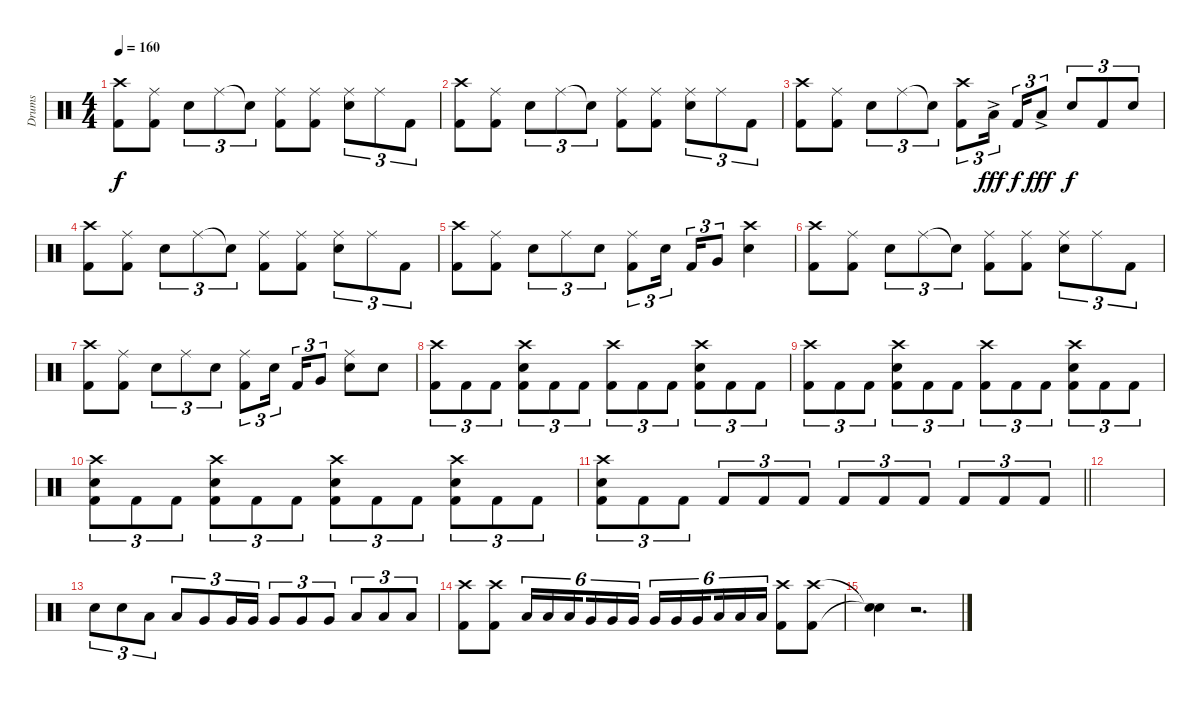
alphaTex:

\track ("Drums" "Drums") {instrument percussion}
\staff {score}
\articulation defaults
\ts (4 4)
\tempo 160
\clef neutral
\ks c
("Crash high (hit)" "Kick (hit) 2").8{dy f} ("Ride (middle)" "Kick (hit) 2").8 "Snare (hit) 2".8{tu (3 2)} "Ride (middle)".8{tu (3 2)} "Snare (hit)"{t}.8{tu (3 2)} ("Ride (middle)" "Kick (hit) 2").8 ("Ride (middle)" "Kick (hit) 2").8 ("Ride (middle)" "Snare (hit) 2").8{tu (3 2)} "Ride (middle)".8{tu (3 2)} "Kick (hit) 2".8{tu (3 2)} |
("Crash high (hit)" "Kick (hit) 2").8 ("Ride (middle)" "Kick (hit) 2").8 "Snare (hit) 2".8{tu (3 2)} "Ride (middle)".8{tu (3 2)} "Snare (hit)"{t}.8{tu (3 2)} ("Ride (middle)" "Kick (hit) 2").8 ("Ride (middle)" "Kick (hit) 2").8 ("Ride (middle)" "Snare (hit) 2").8{tu (3 2)} "Ride (middle)".8{tu (3 2)} "Kick (hit) 2".8{tu (3 2)} |
("Crash high (hit)" "Kick (hit) 2").8 ("Ride (middle)" "Kick (hit) 2").8 "Snare (hit) 2".8{tu (3 2)} "Ride (middle)".8{tu (3 2)} "Snare (hit)"{t}.8{tu (3 2)} ("Crash high (hit)" "Kick (hit) 2").8{tu (3 2)} "Low Tom (hit)"{ac}.16{tu (3 2) dy fff beam splitsecondary} "Kick (hit) 2".16{tu (3 2) dy f} "Low Tom (hit)"{ac}.8{tu (3 2) dy fff} "Snare (hit) 2".8{tu (3 2) dy f} "Kick (hit) 2".8{tu (3 2)} "Snare (hit) 2".8{tu (3 2)} |
("Crash high (hit)" "Kick (hit) 2").8 ("Ride (middle)" "Kick (hit) 2").8 "Snare (hit) 2".8{tu (3 2)} "Ride (middle)".8{tu (3 2)} "Snare (hit)"{t}.8{tu (3 2)} ("Ride (middle)" "Kick (hit) 2").8 ("Ride (middle)" "Kick (hit) 2").8 ("Ride (middle)" "Snare (hit) 2").8{tu (3 2)} "Ride (middle)".8{tu (3 2)} "Kick (hit) 2".8{tu (3 2)} |
("Crash high (hit)" "Kick (hit) 2").8 ("Ride (middle)" "Kick (hit) 2").8 "Snare (hit) 2".8{tu (3 2)} "Ride (middle)".8{tu (3 2)} "Snare (hit) 2".8{tu (3 2)} ("Ride (middle)" "Kick (hit) 2").8{tu (3 2)} "Snare (hit) 2".16{tu (3 2) beam splitsecondary} "Kick (hit) 2".16{tu (3 2)} "Very Low Tom (hit)".8{tu (3 2)} ("Crash high (hit)" "Snare (hit) 2").4 |
("Crash high (hit)" "Kick (hit) 2").8 ("Ride (middle)" "Kick (hit) 2").8 "Snare (hit) 2".8{tu (3 2)} "Ride (middle)".8{tu (3 2)} "Snare (hit)"{t}.8{tu (3 2)} ("Ride (middle)" "Kick (hit) 2").8 ("Ride (middle)" "Kick (hit) 2").8 ("Ride (middle)" "Snare (hit) 2").8{tu (3 2)} "Ride (middle)".8{tu (3 2)} "Kick (hit) 2".8{tu (3 2)} |
("Crash high (hit)" "Kick (hit) 2").8 ("Ride (middle)" "Kick (hit) 2").8 "Snare (hit) 2".8{tu (3 2)} "Ride (middle)".8{tu (3 2)} "Snare (hit) 2".8{tu (3 2)} ("Ride (middle)" "Kick (hit) 2").8{tu (3 2)} "Snare (hit) 2".16{tu (3 2) beam splitsecondary} "Kick (hit) 2".16{tu (3 2)} "Very Low Tom (hit)".8{tu (3 2)} ("Ride (middle)" "Snare (hit) 2").8 "Snare (hit) 2".8 |
("Crash high (hit)" "Kick (hit) 2").8{tu (3 2)} "Kick (hit) 2".8{tu (3 2)} "Kick (hit) 2".8{tu (3 2)} ("Crash high (hit)" "Snare (hit) 2" "Kick (hit) 2").8{tu (3 2)} "Kick (hit) 2".8{tu (3 2)} "Kick (hit) 2".8{tu (3 2)} ("Crash high (hit)" "Kick (hit) 2").8{tu (3 2)} "Kick (hit) 2".8{tu (3 2)} "Kick (hit) 2".8{tu (3 2)} ("Crash high (hit)" "Snare (hit) 2" "Kick (hit) 2").8{tu (3 2)} "Kick (hit) 2".8{tu (3 2)} "Kick (hit) 2".8{tu (3 2)} |
("Crash high (hit)" "Kick (hit) 2").8{tu (3 2)} "Kick (hit) 2".8{tu (3 2)} "Kick (hit) 2".8{tu (3 2)} ("Crash high (hit)" "Snare (hit) 2" "Kick (hit) 2").8{tu (3 2)} "Kick (hit) 2".8{tu (3 2)} "Kick (hit) 2".8{tu (3 2)} ("Crash high (hit)" "Kick (hit) 2").8{tu (3 2)} "Kick (hit) 2".8{tu (3 2)} "Kick (hit) 2".8{tu (3 2)} ("Crash high (hit)" "Snare (hit) 2" "Kick (hit) 2").8{tu (3 2)} "Kick (hit) 2".8{tu (3 2)} "Kick (hit) 2".8{tu (3 2)} |
("Crash high (hit)" "Snare (hit) 2" "Kick (hit) 2").8{tu (3 2)} "Kick (hit) 2".8{tu (3 2)} "Kick (hit) 2".8{tu (3 2)} ("Crash high (hit)" "Snare (hit) 2" "Kick (hit) 2").8{tu (3 2)} "Kick (hit) 2".8{tu (3 2)} "Kick (hit) 2".8{tu (3 2)} ("Crash high (hit)" "Snare (hit) 2" "Kick (hit) 2").8{tu (3 2)} "Kick (hit) 2".8{tu (3 2)} "Kick (hit) 2".8{tu (3 2)} ("Crash high (hit)" "Snare (hit) 2" "Kick (hit) 2").8{tu (3 2)} "Kick (hit) 2".8{tu (3 2)} "Kick (hit) 2".8{tu (3 2)} |
\barLineRight lightlight
("Crash high (hit)" "Snare (hit) 2" "Kick (hit) 2").8{tu (3 2)} "Kick (hit) 2".8{tu (3 2)} "Kick (hit) 2".8{tu (3 2)} "Kick (hit) 2".8{tu (3 2)} "Kick (hit) 2".8{tu (3 2)} "Kick (hit) 2".8{tu (3 2)} "Kick (hit) 2".8{tu (3 2)} "Kick (hit) 2".8{tu (3 2)} "Kick (hit) 2".8{tu (3 2)} "Kick (hit) 2".8{tu (3 2)} "Kick (hit) 2".8{tu (3 2)} "Kick (hit) 2".8{tu (3 2)} |
|
"Snare (hit) 2".8{tu (3 2)} "Snare (hit) 2".8{tu (3 2)} "Low Tom (hit)".8{tu (3 2)} "Low Tom (hit)".8{tu (3 2)} "Very Low Tom (hit)".8{tu (3 2)} "Very Low Tom (hit)".16{tu (3 2)} "Very Low Tom (hit)".16{tu (3 2)} "Very Low Tom (hit)".8{tu (3 2)} "Very Low Tom (hit)".8{tu (3 2)} "Very Low Tom (hit)".8{tu (3 2)} "Low Floor Tom (hit)".8{tu (3 2)} "Low Floor Tom (hit)".8{tu (3 2)} "Low Floor Tom (hit)".8{tu (3 2)} |
("Crash high (hit)" "Kick (hit) 2").8 ("Crash high (hit)" "Kick (hit) 2").8 "Low Tom (hit)".16{tu (6 4)} "Low Tom (hit)".16{tu (6 4)} "Low Tom (hit)".16{tu (6 4) beam splitsecondary} "Very Low Tom (hit)".16{tu (6 4)} "Very Low Tom (hit)".16{tu (6 4)} "Very Low Tom (hit)".16{tu (6 4)} "Very Low Tom (hit)".16{tu (6 4)} "Very Low Tom (hit)".16{tu (6 4)} "Very Low Tom (hit)".16{tu (6 4) beam splitsecondary} "Low Floor Tom (hit)".16{tu (6 4)} "Low Floor Tom (hit)".16{tu (6 4)} "Low Floor Tom (hit)".16{tu (6 4)} ("Crash high (hit)" "Kick (hit) 2").8 ("Crash high (hit)" "Kick (hit) 2").8 |
("Snare (hit)"{t} "Snare (hit)"{t}).4 r.2{d}
